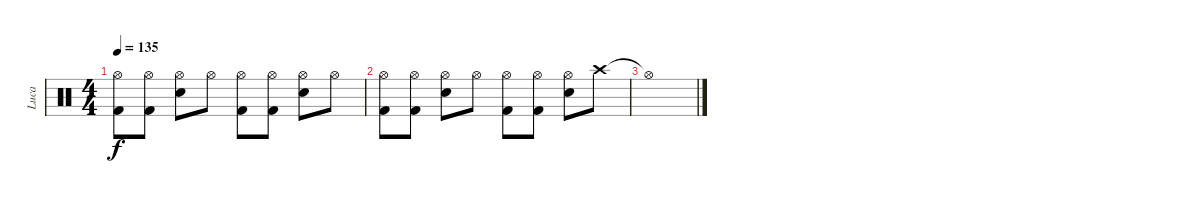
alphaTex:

\track ("Luca" "Luca") {instrument percussion}
\staff {score}
\articulation defaults
\ts (4 4)
\tempo 135
\clef neutral
\ks c
("Hi-Hat (open)" "Kick (hit) 2").8{dy f} ("Hi-Hat (open)" "Kick (hit) 2").8 ("Hi-Hat (open)" "Snare (hit) 2").8 "Hi-Hat (open)".8 ("Hi-Hat (open)" "Kick (hit) 2").8 ("Hi-Hat (open)" "Kick (hit) 2").8 ("Hi-Hat (open)" "Snare (hit) 2").8 "Hi-Hat (open)".8 |
("Hi-Hat (open)" "Kick (hit) 2").8 ("Hi-Hat (open)" "Kick (hit) 2").8 ("Hi-Hat (open)" "Snare (hit) 2").8 "Hi-Hat (open)".8 ("Hi-Hat (open)" "Kick (hit) 2").8 ("Hi-Hat (open)" "Kick (hit) 2").8 ("Hi-Hat (open)" "Snare (hit) 2").8 "Crash high (hit)".8 |
"Hi-Hat (open)"{t}.1
